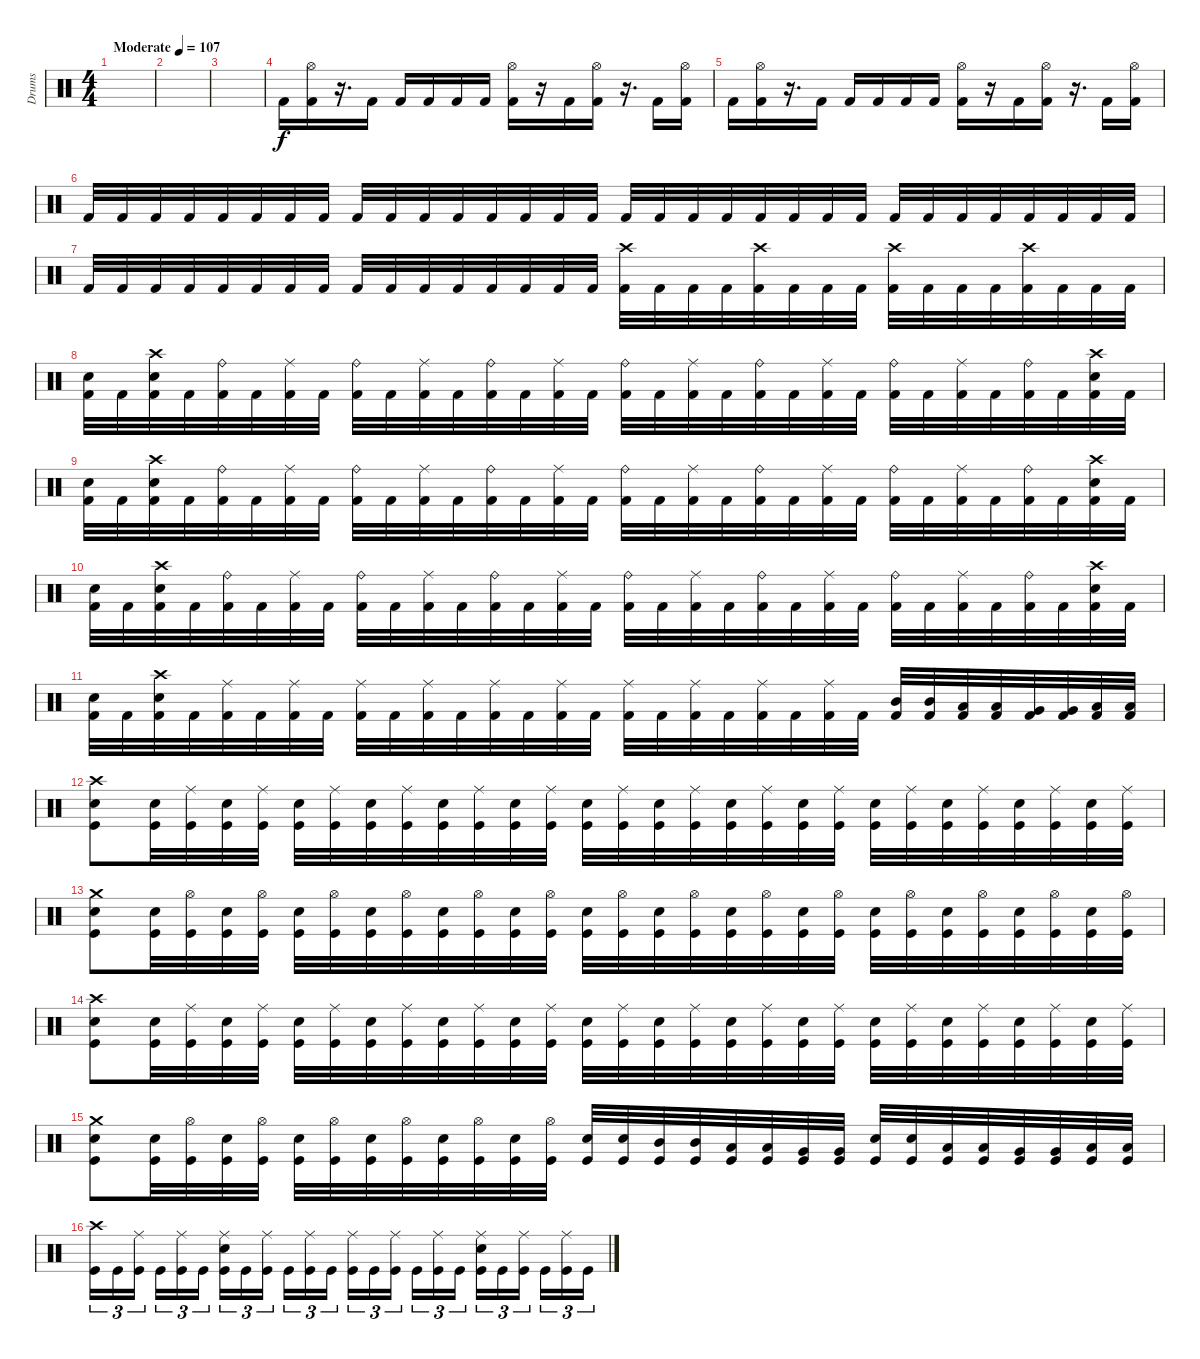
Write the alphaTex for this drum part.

\track ("Drums" "Drums") {instrument percussion}
\staff
\articulation defaults
\ts (4 4)
\tempo (107 "Moderate")
\clef neutral
\ks c
|
|
|
"Kick (hit) 2".16 ("Hi-Hat (open)" "Kick (hit) 2").16 r.16{d} "Kick (hit) 2".16 "Kick (hit) 2".16 "Kick (hit) 2".16 "Kick (hit) 2".16 "Kick (hit) 2".16 ("Hi-Hat (open)" "Kick (hit) 2").16 r.16 "Kick (hit) 2".16 ("Hi-Hat (open)" "Kick (hit) 2").16 r.16{d} "Kick (hit) 2".16 ("Hi-Hat (open)" "Kick (hit) 2").16 |
"Kick (hit) 2".16 ("Hi-Hat (open)" "Kick (hit) 2").16 r.16{d} "Kick (hit) 2".16 "Kick (hit) 2".16 "Kick (hit) 2".16 "Kick (hit) 2".16 "Kick (hit) 2".16 ("Hi-Hat (open)" "Kick (hit) 2").16 r.16 "Kick (hit) 2".16 ("Hi-Hat (open)" "Kick (hit) 2").16 r.16{d} "Kick (hit) 2".16 ("Hi-Hat (open)" "Kick (hit) 2").16 |
"Kick (hit) 2".32 "Kick (hit) 2".32 "Kick (hit) 2".32 "Kick (hit) 2".32 "Kick (hit) 2".32 "Kick (hit) 2".32 "Kick (hit) 2".32 "Kick (hit) 2".32 "Kick (hit) 2".32 "Kick (hit) 2".32 "Kick (hit) 2".32 "Kick (hit) 2".32 "Kick (hit) 2".32 "Kick (hit) 2".32 "Kick (hit) 2".32 "Kick (hit) 2".32 "Kick (hit) 2".32 "Kick (hit) 2".32 "Kick (hit) 2".32 "Kick (hit) 2".32 "Kick (hit) 2".32 "Kick (hit) 2".32 "Kick (hit) 2".32 "Kick (hit) 2".32 "Kick (hit) 2".32 "Kick (hit) 2".32 "Kick (hit) 2".32 "Kick (hit) 2".32 "Kick (hit) 2".32 "Kick (hit) 2".32 "Kick (hit) 2".32 "Kick (hit) 2".32 |
"Kick (hit) 2".32 "Kick (hit) 2".32 "Kick (hit) 2".32 "Kick (hit) 2".32 "Kick (hit) 2".32 "Kick (hit) 2".32 "Kick (hit) 2".32 "Kick (hit) 2".32 "Kick (hit) 2".32 "Kick (hit) 2".32 "Kick (hit) 2".32 "Kick (hit) 2".32 "Kick (hit) 2".32 "Kick (hit) 2".32 "Kick (hit) 2".32 "Kick (hit) 2".32 ("Crash high (hit)" "Kick (hit) 2").32 "Kick (hit) 2".32 "Kick (hit) 2".32 "Kick (hit) 2".32 ("Crash high (hit)" "Kick (hit) 2").32 "Kick (hit) 2".32 "Kick (hit) 2".32 "Kick (hit) 2".32 ("Crash high (hit)" "Kick (hit) 2").32 "Kick (hit) 2".32 "Kick (hit) 2".32 "Kick (hit) 2".32 ("Crash high (hit)" "Kick (hit) 2").32 "Kick (hit) 2".32 "Kick (hit) 2".32 "Kick (hit) 2".32 |
("Snare (hit) 2" "Kick (hit) 2").32 "Kick (hit) 2".32 ("Crash high (hit)" "Snare (hit) 2" "Kick (hit) 2").32 "Kick (hit) 2".32 ("Ride (bell)" "Kick (hit) 2").32 "Kick (hit) 2".32 ("Ride (middle)" "Kick (hit) 2").32 "Kick (hit) 2".32 ("Ride (bell)" "Kick (hit) 2").32 "Kick (hit) 2".32 ("Ride (middle)" "Kick (hit) 2").32 "Kick (hit) 2".32 ("Ride (bell)" "Kick (hit) 2").32 "Kick (hit) 2".32 ("Ride (middle)" "Kick (hit) 2").32 "Kick (hit) 2".32 ("Ride (bell)" "Kick (hit) 2").32 "Kick (hit) 2".32 ("Ride (middle)" "Kick (hit) 2").32 "Kick (hit) 2".32 ("Ride (bell)" "Kick (hit) 2").32 "Kick (hit) 2".32 ("Ride (middle)" "Kick (hit) 2").32 "Kick (hit) 2".32 ("Ride (bell)" "Kick (hit) 2").32 "Kick (hit) 2".32 ("Ride (middle)" "Kick (hit) 2").32 "Kick (hit) 2".32 ("Ride (bell)" "Kick (hit) 2").32 "Kick (hit) 2".32 ("Crash high (hit)" "Snare (hit) 2" "Kick (hit) 2").32 "Kick (hit) 2".32 |
("Snare (hit) 2" "Kick (hit) 2").32 "Kick (hit) 2".32 ("Crash high (hit)" "Snare (hit) 2" "Kick (hit) 2").32 "Kick (hit) 2".32 ("Ride (bell)" "Kick (hit) 2").32 "Kick (hit) 2".32 ("Ride (middle)" "Kick (hit) 2").32 "Kick (hit) 2".32 ("Ride (bell)" "Kick (hit) 2").32 "Kick (hit) 2".32 ("Ride (middle)" "Kick (hit) 2").32 "Kick (hit) 2".32 ("Ride (bell)" "Kick (hit) 2").32 "Kick (hit) 2".32 ("Ride (middle)" "Kick (hit) 2").32 "Kick (hit) 2".32 ("Ride (bell)" "Kick (hit) 2").32 "Kick (hit) 2".32 ("Ride (middle)" "Kick (hit) 2").32 "Kick (hit) 2".32 ("Ride (bell)" "Kick (hit) 2").32 "Kick (hit) 2".32 ("Ride (middle)" "Kick (hit) 2").32 "Kick (hit) 2".32 ("Ride (bell)" "Kick (hit) 2").32 "Kick (hit) 2".32 ("Ride (middle)" "Kick (hit) 2").32 "Kick (hit) 2".32 ("Ride (bell)" "Kick (hit) 2").32 "Kick (hit) 2".32 ("Crash high (hit)" "Snare (hit) 2" "Kick (hit) 2").32 "Kick (hit) 2".32 |
("Snare (hit) 2" "Kick (hit) 2").32 "Kick (hit) 2".32 ("Crash high (hit)" "Snare (hit) 2" "Kick (hit) 2").32 "Kick (hit) 2".32 ("Ride (bell)" "Kick (hit) 2").32 "Kick (hit) 2".32 ("Ride (middle)" "Kick (hit) 2").32 "Kick (hit) 2".32 ("Ride (bell)" "Kick (hit) 2").32 "Kick (hit) 2".32 ("Ride (middle)" "Kick (hit) 2").32 "Kick (hit) 2".32 ("Ride (bell)" "Kick (hit) 2").32 "Kick (hit) 2".32 ("Ride (middle)" "Kick (hit) 2").32 "Kick (hit) 2".32 ("Ride (bell)" "Kick (hit) 2").32 "Kick (hit) 2".32 ("Ride (middle)" "Kick (hit) 2").32 "Kick (hit) 2".32 ("Ride (bell)" "Kick (hit) 2").32 "Kick (hit) 2".32 ("Ride (middle)" "Kick (hit) 2").32 "Kick (hit) 2".32 ("Ride (bell)" "Kick (hit) 2").32 "Kick (hit) 2".32 ("Ride (middle)" "Kick (hit) 2").32 "Kick (hit) 2".32 ("Ride (bell)" "Kick (hit) 2").32 "Kick (hit) 2".32 ("Crash high (hit)" "Snare (hit) 2" "Kick (hit) 2").32 "Kick (hit) 2".32 |
("Snare (hit) 2" "Kick (hit) 2").32 "Kick (hit) 2".32 ("Crash high (hit)" "Snare (hit) 2" "Kick (hit) 2").32 "Kick (hit) 2".32 ("Ride (middle)" "Kick (hit) 2").32 "Kick (hit) 2".32 ("Ride (middle)" "Kick (hit) 2").32 "Kick (hit) 2".32 ("Ride (middle)" "Kick (hit) 2").32 "Kick (hit) 2".32 ("Ride (middle)" "Kick (hit) 2").32 "Kick (hit) 2".32 ("Ride (middle)" "Kick (hit) 2").32 "Kick (hit) 2".32 ("Ride (middle)" "Kick (hit) 2").32 "Kick (hit) 2".32 ("Ride (middle)" "Kick (hit) 2").32 "Kick (hit) 2".32 ("Ride (middle)" "Kick (hit) 2").32 "Kick (hit) 2".32 ("Ride (middle)" "Kick (hit) 2").32 "Kick (hit) 2".32 ("Ride (middle)" "Kick (hit) 2").32 "Kick (hit) 2".32 ("Mid Tom (hit)" "Kick (hit) 2").32 ("Mid Tom (hit)" "Kick (hit) 2").32 ("Low Tom (hit)" "Kick (hit) 2").32 ("Low Tom (hit)" "Kick (hit) 2").32 ("Very Low Tom (hit)" "Kick (hit) 2").32 ("Very Low Tom (hit)" "Kick (hit) 2").32 ("Low Floor Tom (hit)" "Kick (hit) 2").32 ("Low Floor Tom (hit)" "Kick (hit) 2").32 |
("Crash high (hit)" "Electric Snare (hit)" "Kick (hit)").8 ("Electric Snare (hit)" "Kick (hit)").32 ("Ride (middle)" "Kick (hit)").32 ("Electric Snare (hit)" "Kick (hit)").32 ("Ride (middle)" "Kick (hit)").32 ("Electric Snare (hit)" "Kick (hit)").32 ("Ride (middle)" "Kick (hit)").32 ("Electric Snare (hit)" "Kick (hit)").32 ("Ride (middle)" "Kick (hit)").32 ("Electric Snare (hit)" "Kick (hit)").32 ("Ride (middle)" "Kick (hit)").32 ("Electric Snare (hit)" "Kick (hit)").32 ("Ride (middle)" "Kick (hit)").32 ("Electric Snare (hit)" "Kick (hit)").32 ("Ride (middle)" "Kick (hit)").32 ("Electric Snare (hit)" "Kick (hit)").32 ("Ride (middle)" "Kick (hit)").32 ("Electric Snare (hit)" "Kick (hit)").32 ("Ride (middle)" "Kick (hit)").32 ("Electric Snare (hit)" "Kick (hit)").32 ("Ride (middle)" "Kick (hit)").32 ("Electric Snare (hit)" "Kick (hit)").32 ("Ride (middle)" "Kick (hit)").32 ("Electric Snare (hit)" "Kick (hit)").32 ("Ride (middle)" "Kick (hit)").32 ("Electric Snare (hit)" "Kick (hit)").32 ("Ride (middle)" "Kick (hit)").32 ("Electric Snare (hit)" "Kick (hit)").32 ("Ride (middle)" "Kick (hit)").32 |
("Crash medium (hit)" "Electric Snare (hit)" "Kick (hit)").8 ("Electric Snare (hit)" "Kick (hit)").32 ("Hi-Hat (open)" "Kick (hit)").32 ("Electric Snare (hit)" "Kick (hit)").32 ("Hi-Hat (open)" "Kick (hit)").32 ("Electric Snare (hit)" "Kick (hit)").32 ("Hi-Hat (open)" "Kick (hit)").32 ("Electric Snare (hit)" "Kick (hit)").32 ("Hi-Hat (open)" "Kick (hit)").32 ("Electric Snare (hit)" "Kick (hit)").32 ("Hi-Hat (open)" "Kick (hit)").32 ("Electric Snare (hit)" "Kick (hit)").32 ("Hi-Hat (open)" "Kick (hit)").32 ("Electric Snare (hit)" "Kick (hit)").32 ("Hi-Hat (open)" "Kick (hit)").32 ("Electric Snare (hit)" "Kick (hit)").32 ("Hi-Hat (open)" "Kick (hit)").32 ("Electric Snare (hit)" "Kick (hit)").32 ("Hi-Hat (open)" "Kick (hit)").32 ("Electric Snare (hit)" "Kick (hit)").32 ("Hi-Hat (open)" "Kick (hit)").32 ("Electric Snare (hit)" "Kick (hit)").32 ("Hi-Hat (open)" "Kick (hit)").32 ("Electric Snare (hit)" "Kick (hit)").32 ("Hi-Hat (open)" "Kick (hit)").32 ("Electric Snare (hit)" "Kick (hit)").32 ("Hi-Hat (open)" "Kick (hit)").32 ("Electric Snare (hit)" "Kick (hit)").32 ("Hi-Hat (open)" "Kick (hit)").32 |
("Crash high (hit)" "Electric Snare (hit)" "Kick (hit)").8 ("Electric Snare (hit)" "Kick (hit)").32 ("Ride (middle)" "Kick (hit)").32 ("Electric Snare (hit)" "Kick (hit)").32 ("Ride (middle)" "Kick (hit)").32 ("Electric Snare (hit)" "Kick (hit)").32 ("Ride (middle)" "Kick (hit)").32 ("Electric Snare (hit)" "Kick (hit)").32 ("Ride (middle)" "Kick (hit)").32 ("Electric Snare (hit)" "Kick (hit)").32 ("Ride (middle)" "Kick (hit)").32 ("Electric Snare (hit)" "Kick (hit)").32 ("Ride (middle)" "Kick (hit)").32 ("Electric Snare (hit)" "Kick (hit)").32 ("Ride (middle)" "Kick (hit)").32 ("Electric Snare (hit)" "Kick (hit)").32 ("Ride (middle)" "Kick (hit)").32 ("Electric Snare (hit)" "Kick (hit)").32 ("Ride (middle)" "Kick (hit)").32 ("Electric Snare (hit)" "Kick (hit)").32 ("Ride (middle)" "Kick (hit)").32 ("Electric Snare (hit)" "Kick (hit)").32 ("Ride (middle)" "Kick (hit)").32 ("Electric Snare (hit)" "Kick (hit)").32 ("Ride (middle)" "Kick (hit)").32 ("Electric Snare (hit)" "Kick (hit)").32 ("Ride (middle)" "Kick (hit)").32 ("Electric Snare (hit)" "Kick (hit)").32 ("Ride (middle)" "Kick (hit)").32 |
("Crash medium (hit)" "Electric Snare (hit)" "Kick (hit)").8 ("Electric Snare (hit)" "Kick (hit)").32 ("Hi-Hat (open)" "Kick (hit)").32 ("Electric Snare (hit)" "Kick (hit)").32 ("Hi-Hat (open)" "Kick (hit)").32 ("Electric Snare (hit)" "Kick (hit)").32 ("Hi-Hat (open)" "Kick (hit)").32 ("Electric Snare (hit)" "Kick (hit)").32 ("Hi-Hat (open)" "Kick (hit)").32 ("Electric Snare (hit)" "Kick (hit)").32 ("Hi-Hat (open)" "Kick (hit)").32 ("Electric Snare (hit)" "Kick (hit)").32 ("Hi-Hat (open)" "Kick (hit)").32 ("Electric Snare (hit)" "Kick (hit)").32 ("Electric Snare (hit)" "Kick (hit)").32 ("Mid Tom (hit)" "Kick (hit)").32 ("Mid Tom (hit)" "Kick (hit)").32 ("Low Tom (hit)" "Kick (hit)").32 ("Low Tom (hit)" "Kick (hit)").32 ("Very Low Tom (hit)" "Kick (hit)").32 ("Very Low Tom (hit)" "Kick (hit)").32 ("Electric Snare (hit)" "Kick (hit)").32 ("Electric Snare (hit)" "Kick (hit)").32 ("Low Tom (hit)" "Kick (hit)").32 ("Low Tom (hit)" "Kick (hit)").32 ("Very Low Tom (hit)" "Kick (hit)").32 ("Very Low Tom (hit)" "Kick (hit)").32 ("Low Floor Tom (hit)" "Kick (hit)").32 ("Low Floor Tom (hit)" "Kick (hit)").32 |
("Crash high (hit)" "Kick (hit)").16{tu (3 2)} "Kick (hit)".16{tu (3 2)} ("Ride (middle)" "Kick (hit)").16{tu (3 2) beam splitsecondary} "Kick (hit)".16{tu (3 2)} ("Ride (middle)" "Kick (hit)").16{tu (3 2)} "Kick (hit)".16{tu (3 2)} ("Ride (middle)" "Electric Snare (hit)" "Kick (hit)").16{tu (3 2)} "Kick (hit)".16{tu (3 2)} ("Ride (middle)" "Kick (hit)").16{tu (3 2) beam splitsecondary} "Kick (hit)".16{tu (3 2)} ("Ride (middle)" "Kick (hit)").16{tu (3 2)} "Kick (hit)".16{tu (3 2)} ("Ride (middle)" "Kick (hit)").16{tu (3 2)} "Kick (hit)".16{tu (3 2)} ("Ride (middle)" "Kick (hit)").16{tu (3 2) beam splitsecondary} "Kick (hit)".16{tu (3 2)} ("Ride (middle)" "Kick (hit)").16{tu (3 2)} "Kick (hit)".16{tu (3 2)} ("Ride (middle)" "Electric Snare (hit)" "Kick (hit)").16{tu (3 2)} "Kick (hit)".16{tu (3 2)} ("Ride (middle)" "Kick (hit)").16{tu (3 2) beam splitsecondary} "Kick (hit)".16{tu (3 2)} ("Ride (middle)" "Kick (hit)").16{tu (3 2)} "Kick (hit)".16{tu (3 2)}
